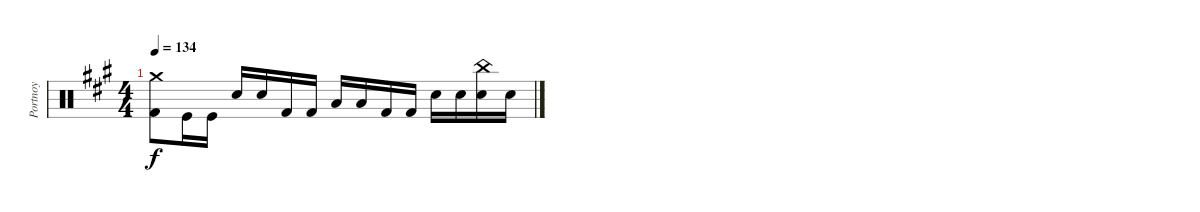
\track ("Portnoy" "Portnoy") {instrument percussion}
\staff {score}
\articulation defaults
\ts (4 4)
\tempo 134
\clef neutral
\ks f#minor
("Kick (hit) 2" "Crash medium (hit)").8{dy f} "Kick (hit)".16 "Kick (hit)".16 "Snare (hit) 2".16 "Snare (hit) 2".16 "Kick (hit) 2".16 "Kick (hit) 2".16 "Low Tom (hit)".16 "Low Tom (hit)".16 "Kick (hit) 2".16 "Kick (hit) 2".16 "Snare (hit) 2".16 "Snare (hit) 2".16 ("Snare (hit) 2" "China (hit)").16 "Snare (hit) 2".16
